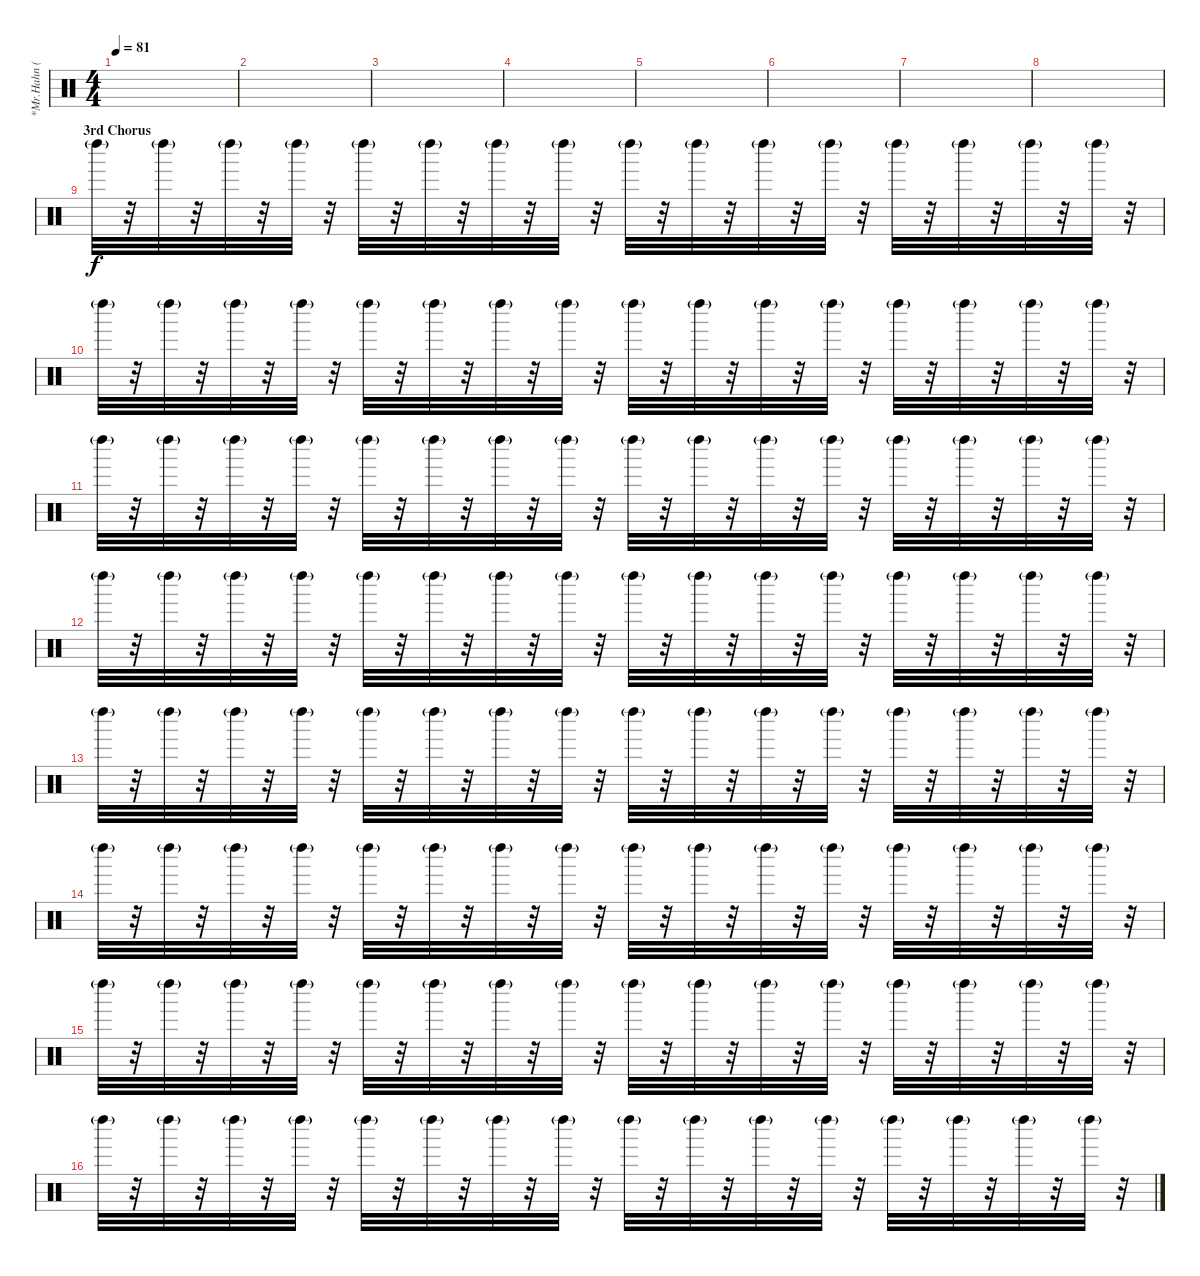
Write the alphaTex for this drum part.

\track ("*Mr.Hahn (Sampler)" "*Mr.Hahn (") {instrument percussion}
\staff {score}
\articulation defaults
\ts (4 4)
\tempo 81
\clef neutral
\ks c
|
|
|
|
|
|
|
|
\section ("" "3rd Chorus")
"Left Maraca (hit)"{g}.32 r.32 "Left Maraca (hit)"{g}.32 r.32 "Left Maraca (hit)"{g}.32 r.32 "Left Maraca (hit)"{g}.32 r.32 "Left Maraca (hit)"{g}.32 r.32 "Left Maraca (hit)"{g}.32 r.32 "Left Maraca (hit)"{g}.32 r.32 "Left Maraca (hit)"{g}.32 r.32 "Left Maraca (hit)"{g}.32 r.32 "Left Maraca (hit)"{g}.32 r.32 "Left Maraca (hit)"{g}.32 r.32 "Left Maraca (hit)"{g}.32 r.32 "Left Maraca (hit)"{g}.32 r.32 "Left Maraca (hit)"{g}.32 r.32 "Left Maraca (hit)"{g}.32 r.32 "Left Maraca (hit)"{g}.32 r.32 |
"Left Maraca (hit)"{g}.32 r.32 "Left Maraca (hit)"{g}.32 r.32 "Left Maraca (hit)"{g}.32 r.32 "Left Maraca (hit)"{g}.32 r.32 "Left Maraca (hit)"{g}.32 r.32 "Left Maraca (hit)"{g}.32 r.32 "Left Maraca (hit)"{g}.32 r.32 "Left Maraca (hit)"{g}.32 r.32 "Left Maraca (hit)"{g}.32 r.32 "Left Maraca (hit)"{g}.32 r.32 "Left Maraca (hit)"{g}.32 r.32 "Left Maraca (hit)"{g}.32 r.32 "Left Maraca (hit)"{g}.32 r.32 "Left Maraca (hit)"{g}.32 r.32 "Left Maraca (hit)"{g}.32 r.32 "Left Maraca (hit)"{g}.32 r.32 |
"Left Maraca (hit)"{g}.32 r.32 "Left Maraca (hit)"{g}.32 r.32 "Left Maraca (hit)"{g}.32 r.32 "Left Maraca (hit)"{g}.32 r.32 "Left Maraca (hit)"{g}.32 r.32 "Left Maraca (hit)"{g}.32 r.32 "Left Maraca (hit)"{g}.32 r.32 "Left Maraca (hit)"{g}.32 r.32 "Left Maraca (hit)"{g}.32 r.32 "Left Maraca (hit)"{g}.32 r.32 "Left Maraca (hit)"{g}.32 r.32 "Left Maraca (hit)"{g}.32 r.32 "Left Maraca (hit)"{g}.32 r.32 "Left Maraca (hit)"{g}.32 r.32 "Left Maraca (hit)"{g}.32 r.32 "Left Maraca (hit)"{g}.32 r.32 |
"Left Maraca (hit)"{g}.32 r.32 "Left Maraca (hit)"{g}.32 r.32 "Left Maraca (hit)"{g}.32 r.32 "Left Maraca (hit)"{g}.32 r.32 "Left Maraca (hit)"{g}.32 r.32 "Left Maraca (hit)"{g}.32 r.32 "Left Maraca (hit)"{g}.32 r.32 "Left Maraca (hit)"{g}.32 r.32 "Left Maraca (hit)"{g}.32 r.32 "Left Maraca (hit)"{g}.32 r.32 "Left Maraca (hit)"{g}.32 r.32 "Left Maraca (hit)"{g}.32 r.32 "Left Maraca (hit)"{g}.32 r.32 "Left Maraca (hit)"{g}.32 r.32 "Left Maraca (hit)"{g}.32 r.32 "Left Maraca (hit)"{g}.32 r.32 |
"Left Maraca (hit)"{g}.32 r.32 "Left Maraca (hit)"{g}.32 r.32 "Left Maraca (hit)"{g}.32 r.32 "Left Maraca (hit)"{g}.32 r.32 "Left Maraca (hit)"{g}.32 r.32 "Left Maraca (hit)"{g}.32 r.32 "Left Maraca (hit)"{g}.32 r.32 "Left Maraca (hit)"{g}.32 r.32 "Left Maraca (hit)"{g}.32 r.32 "Left Maraca (hit)"{g}.32 r.32 "Left Maraca (hit)"{g}.32 r.32 "Left Maraca (hit)"{g}.32 r.32 "Left Maraca (hit)"{g}.32 r.32 "Left Maraca (hit)"{g}.32 r.32 "Left Maraca (hit)"{g}.32 r.32 "Left Maraca (hit)"{g}.32 r.32 |
"Left Maraca (hit)"{g}.32 r.32 "Left Maraca (hit)"{g}.32 r.32 "Left Maraca (hit)"{g}.32 r.32 "Left Maraca (hit)"{g}.32 r.32 "Left Maraca (hit)"{g}.32 r.32 "Left Maraca (hit)"{g}.32 r.32 "Left Maraca (hit)"{g}.32 r.32 "Left Maraca (hit)"{g}.32 r.32 "Left Maraca (hit)"{g}.32 r.32 "Left Maraca (hit)"{g}.32 r.32 "Left Maraca (hit)"{g}.32 r.32 "Left Maraca (hit)"{g}.32 r.32 "Left Maraca (hit)"{g}.32 r.32 "Left Maraca (hit)"{g}.32 r.32 "Left Maraca (hit)"{g}.32 r.32 "Left Maraca (hit)"{g}.32 r.32 |
"Left Maraca (hit)"{g}.32 r.32 "Left Maraca (hit)"{g}.32 r.32 "Left Maraca (hit)"{g}.32 r.32 "Left Maraca (hit)"{g}.32 r.32 "Left Maraca (hit)"{g}.32 r.32 "Left Maraca (hit)"{g}.32 r.32 "Left Maraca (hit)"{g}.32 r.32 "Left Maraca (hit)"{g}.32 r.32 "Left Maraca (hit)"{g}.32 r.32 "Left Maraca (hit)"{g}.32 r.32 "Left Maraca (hit)"{g}.32 r.32 "Left Maraca (hit)"{g}.32 r.32 "Left Maraca (hit)"{g}.32 r.32 "Left Maraca (hit)"{g}.32 r.32 "Left Maraca (hit)"{g}.32 r.32 "Left Maraca (hit)"{g}.32 r.32 |
"Left Maraca (hit)"{g}.32 r.32 "Left Maraca (hit)"{g}.32 r.32 "Left Maraca (hit)"{g}.32 r.32 "Left Maraca (hit)"{g}.32 r.32 "Left Maraca (hit)"{g}.32 r.32 "Left Maraca (hit)"{g}.32 r.32 "Left Maraca (hit)"{g}.32 r.32 "Left Maraca (hit)"{g}.32 r.32 "Left Maraca (hit)"{g}.32 r.32 "Left Maraca (hit)"{g}.32 r.32 "Left Maraca (hit)"{g}.32 r.32 "Left Maraca (hit)"{g}.32 r.32 "Left Maraca (hit)"{g}.32 r.32 "Left Maraca (hit)"{g}.32 r.32 "Left Maraca (hit)"{g}.32 r.32 "Left Maraca (hit)"{g}.32 r.32
